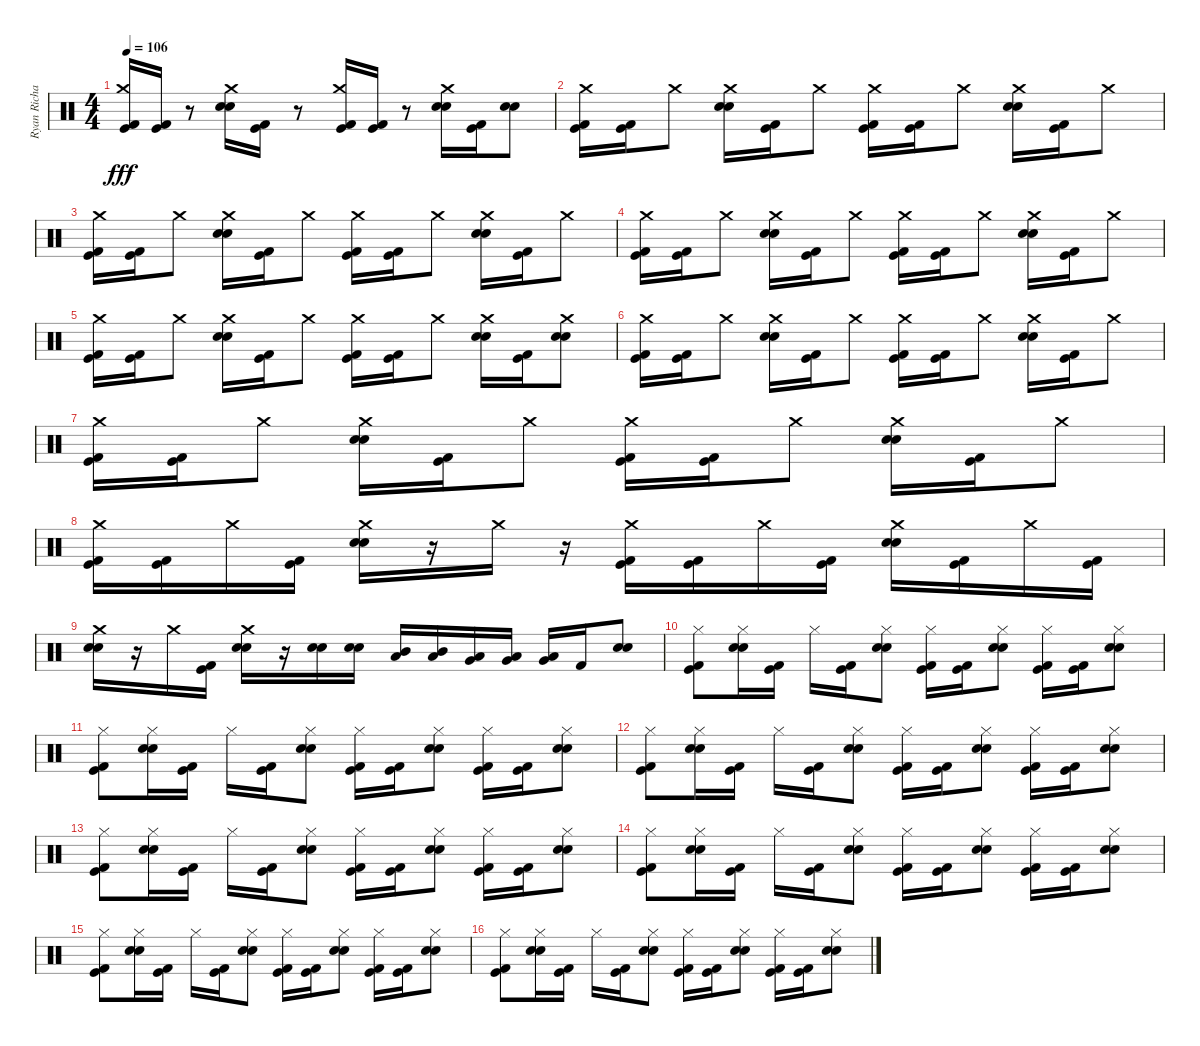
\track ("Ryan Richards" "Ryan Richa") {instrument percussion}
\staff {score}
\articulation defaults
\ts (4 4)
\tempo 106
\clef neutral
\ks c
("Kick (hit)" "Crash medium (hit)" "Kick (hit) 2").16{dy fff} ("Kick (hit)" "Kick (hit) 2").16 r.8 ("Crash medium (hit)" "Snare (hit) 2" "Electric Snare (hit)").16 ("Kick (hit)" "Kick (hit) 2").16 r.8 ("Kick (hit)" "Crash medium (hit)" "Kick (hit) 2").16 ("Kick (hit)" "Kick (hit) 2").16 r.8 ("Crash medium (hit)" "Snare (hit) 2" "Electric Snare (hit)").16 ("Kick (hit)" "Kick (hit) 2").16 ("Snare (hit) 2" "Electric Snare (hit)").8 |
("Kick (hit)" "Crash medium (hit)" "Kick (hit) 2").16 ("Kick (hit)" "Kick (hit) 2").16 "Crash medium (hit)".8 ("Crash medium (hit)" "Snare (hit) 2" "Electric Snare (hit)").16 ("Kick (hit)" "Kick (hit) 2").16 "Crash medium (hit)".8 ("Kick (hit)" "Crash medium (hit)" "Kick (hit) 2").16 ("Kick (hit)" "Kick (hit) 2").16 "Crash medium (hit)".8 ("Crash medium (hit)" "Snare (hit) 2" "Electric Snare (hit)").16 ("Kick (hit)" "Kick (hit) 2").16 "Crash medium (hit)".8 |
("Kick (hit)" "Crash medium (hit)" "Kick (hit) 2").16 ("Kick (hit)" "Kick (hit) 2").16 "Crash medium (hit)".8 ("Crash medium (hit)" "Snare (hit) 2" "Electric Snare (hit)").16 ("Kick (hit)" "Kick (hit) 2").16 "Crash medium (hit)".8 ("Kick (hit)" "Crash medium (hit)" "Kick (hit) 2").16 ("Kick (hit)" "Kick (hit) 2").16 "Crash medium (hit)".8 ("Crash medium (hit)" "Snare (hit) 2" "Electric Snare (hit)").16 ("Kick (hit)" "Kick (hit) 2").16 "Crash medium (hit)".8 |
("Kick (hit)" "Crash medium (hit)" "Kick (hit) 2").16 ("Kick (hit)" "Kick (hit) 2").16 "Crash medium (hit)".8 ("Crash medium (hit)" "Snare (hit) 2" "Electric Snare (hit)").16 ("Kick (hit)" "Kick (hit) 2").16 "Crash medium (hit)".8 ("Kick (hit)" "Crash medium (hit)" "Kick (hit) 2").16 ("Kick (hit)" "Kick (hit) 2").16 "Crash medium (hit)".8 ("Crash medium (hit)" "Snare (hit) 2" "Electric Snare (hit)").16 ("Kick (hit)" "Kick (hit) 2").16 "Crash medium (hit)".8 |
("Kick (hit)" "Crash medium (hit)" "Kick (hit) 2").16 ("Kick (hit)" "Kick (hit) 2").16 "Crash medium (hit)".8 ("Crash medium (hit)" "Snare (hit) 2" "Electric Snare (hit)").16 ("Kick (hit)" "Kick (hit) 2").16 "Crash medium (hit)".8 ("Kick (hit)" "Crash medium (hit)" "Kick (hit) 2").16 ("Kick (hit)" "Kick (hit) 2").16 "Crash medium (hit)".8 ("Crash medium (hit)" "Snare (hit) 2" "Electric Snare (hit)").16 ("Kick (hit)" "Kick (hit) 2").16 ("Crash medium (hit)" "Snare (hit) 2" "Electric Snare (hit)").8 |
("Kick (hit)" "Crash medium (hit)" "Kick (hit) 2").16 ("Kick (hit)" "Kick (hit) 2").16 "Crash medium (hit)".8 ("Crash medium (hit)" "Snare (hit) 2" "Electric Snare (hit)").16 ("Kick (hit)" "Kick (hit) 2").16 "Crash medium (hit)".8 ("Kick (hit)" "Crash medium (hit)" "Kick (hit) 2").16 ("Kick (hit)" "Kick (hit) 2").16 "Crash medium (hit)".8 ("Crash medium (hit)" "Snare (hit) 2" "Electric Snare (hit)").16 ("Kick (hit)" "Kick (hit) 2").16 "Crash medium (hit)".8 |
("Kick (hit)" "Crash medium (hit)" "Kick (hit) 2").16 ("Kick (hit)" "Kick (hit) 2").16 "Crash medium (hit)".8 ("Crash medium (hit)" "Snare (hit) 2" "Electric Snare (hit)").16 ("Kick (hit)" "Kick (hit) 2").16 "Crash medium (hit)".8 ("Kick (hit)" "Crash medium (hit)" "Kick (hit) 2").16 ("Kick (hit)" "Kick (hit) 2").16 "Crash medium (hit)".8 ("Crash medium (hit)" "Snare (hit) 2" "Electric Snare (hit)").16 ("Kick (hit)" "Kick (hit) 2").16 "Crash medium (hit)".8 |
("Kick (hit)" "Crash medium (hit)" "Kick (hit) 2").16 ("Kick (hit)" "Kick (hit) 2").16 "Crash medium (hit)".16 ("Kick (hit)" "Kick (hit) 2").16 ("Crash medium (hit)" "Snare (hit) 2" "Electric Snare (hit)").16 r.16 "Crash medium (hit)".16 r.16 ("Kick (hit)" "Crash medium (hit)" "Kick (hit) 2").16 ("Kick (hit)" "Kick (hit) 2").16 "Crash medium (hit)".16 ("Kick (hit)" "Kick (hit) 2").16 ("Crash medium (hit)" "Snare (hit) 2" "Electric Snare (hit)").16 ("Kick (hit)" "Kick (hit) 2").16 "Crash medium (hit)".16 ("Kick (hit)" "Kick (hit) 2").16 |
("Crash medium (hit)" "Snare (hit) 2" "Electric Snare (hit)").16 r.16 "Crash medium (hit)".16 ("Kick (hit)" "Kick (hit) 2").16 ("Crash medium (hit)" "Snare (hit) 2" "Electric Snare (hit)").16 r.16 ("Snare (hit) 2" "Electric Snare (hit)").16 ("Snare (hit) 2" "Electric Snare (hit)").16 ("Mid Tom (hit)" "Low Tom (hit)").16 ("Mid Tom (hit)" "Low Tom (hit)").16 ("Low Tom (hit)" "Very Low Tom (hit)").16 ("Low Tom (hit)" "Very Low Tom (hit)").16 ("Very Low Tom (hit)" "Low Floor Tom (hit)").16 "Kick (hit) 2".16 ("Snare (hit) 2" "Electric Snare (hit)").8 |
("Kick (hit)" "Hi-Hat (closed)" "Kick (hit) 2").8 ("Hi-Hat (closed)" "Snare (hit) 2" "Electric Snare (hit)").16 ("Kick (hit)" "Kick (hit) 2").16 "Hi-Hat (closed)".16 ("Kick (hit)" "Kick (hit) 2").16 ("Hi-Hat (closed)" "Snare (hit) 2" "Electric Snare (hit)").8 ("Kick (hit)" "Hi-Hat (closed)" "Kick (hit) 2").16 ("Kick (hit)" "Kick (hit) 2").16 ("Hi-Hat (closed)" "Snare (hit) 2" "Electric Snare (hit)").8 ("Kick (hit)" "Hi-Hat (closed)" "Kick (hit) 2").16 ("Kick (hit)" "Kick (hit) 2").16 ("Hi-Hat (closed)" "Snare (hit) 2" "Electric Snare (hit)").8 |
("Kick (hit)" "Hi-Hat (closed)" "Kick (hit) 2").8 ("Hi-Hat (closed)" "Snare (hit) 2" "Electric Snare (hit)").16 ("Kick (hit)" "Kick (hit) 2").16 "Hi-Hat (closed)".16 ("Kick (hit)" "Kick (hit) 2").16 ("Hi-Hat (closed)" "Snare (hit) 2" "Electric Snare (hit)").8 ("Kick (hit)" "Hi-Hat (closed)" "Kick (hit) 2").16 ("Kick (hit)" "Kick (hit) 2").16 ("Hi-Hat (closed)" "Snare (hit) 2" "Electric Snare (hit)").8 ("Kick (hit)" "Hi-Hat (closed)" "Kick (hit) 2").16 ("Kick (hit)" "Kick (hit) 2").16 ("Hi-Hat (closed)" "Snare (hit) 2" "Electric Snare (hit)").8 |
("Kick (hit)" "Hi-Hat (closed)" "Kick (hit) 2").8 ("Hi-Hat (closed)" "Snare (hit) 2" "Electric Snare (hit)").16 ("Kick (hit)" "Kick (hit) 2").16 "Hi-Hat (closed)".16 ("Kick (hit)" "Kick (hit) 2").16 ("Hi-Hat (closed)" "Snare (hit) 2" "Electric Snare (hit)").8 ("Kick (hit)" "Hi-Hat (closed)" "Kick (hit) 2").16 ("Kick (hit)" "Kick (hit) 2").16 ("Hi-Hat (closed)" "Snare (hit) 2" "Electric Snare (hit)").8 ("Kick (hit)" "Hi-Hat (closed)" "Kick (hit) 2").16 ("Kick (hit)" "Kick (hit) 2").16 ("Hi-Hat (closed)" "Snare (hit) 2" "Electric Snare (hit)").8 |
("Kick (hit)" "Hi-Hat (closed)" "Kick (hit) 2").8 ("Hi-Hat (closed)" "Snare (hit) 2" "Electric Snare (hit)").16 ("Kick (hit)" "Kick (hit) 2").16 "Hi-Hat (closed)".16 ("Kick (hit)" "Kick (hit) 2").16 ("Hi-Hat (closed)" "Snare (hit) 2" "Electric Snare (hit)").8 ("Kick (hit)" "Hi-Hat (closed)" "Kick (hit) 2").16 ("Kick (hit)" "Kick (hit) 2").16 ("Hi-Hat (closed)" "Snare (hit) 2" "Electric Snare (hit)").8 ("Kick (hit)" "Hi-Hat (closed)" "Kick (hit) 2").16 ("Kick (hit)" "Kick (hit) 2").16 ("Hi-Hat (closed)" "Snare (hit) 2" "Electric Snare (hit)").8 |
("Kick (hit)" "Hi-Hat (closed)" "Kick (hit) 2").8 ("Hi-Hat (closed)" "Snare (hit) 2" "Electric Snare (hit)").16 ("Kick (hit)" "Kick (hit) 2").16 "Hi-Hat (closed)".16 ("Kick (hit)" "Kick (hit) 2").16 ("Hi-Hat (closed)" "Snare (hit) 2" "Electric Snare (hit)").8 ("Kick (hit)" "Hi-Hat (closed)" "Kick (hit) 2").16 ("Kick (hit)" "Kick (hit) 2").16 ("Hi-Hat (closed)" "Snare (hit) 2" "Electric Snare (hit)").8 ("Kick (hit)" "Hi-Hat (closed)" "Kick (hit) 2").16 ("Kick (hit)" "Kick (hit) 2").16 ("Hi-Hat (closed)" "Snare (hit) 2" "Electric Snare (hit)").8 |
("Kick (hit)" "Hi-Hat (closed)" "Kick (hit) 2").8 ("Hi-Hat (closed)" "Snare (hit) 2" "Electric Snare (hit)").16 ("Kick (hit)" "Kick (hit) 2").16 "Hi-Hat (closed)".16 ("Kick (hit)" "Kick (hit) 2").16 ("Hi-Hat (closed)" "Snare (hit) 2" "Electric Snare (hit)").8 ("Kick (hit)" "Hi-Hat (closed)" "Kick (hit) 2").16 ("Kick (hit)" "Kick (hit) 2").16 ("Hi-Hat (closed)" "Snare (hit) 2" "Electric Snare (hit)").8 ("Kick (hit)" "Hi-Hat (closed)" "Kick (hit) 2").16 ("Kick (hit)" "Kick (hit) 2").16 ("Hi-Hat (closed)" "Snare (hit) 2" "Electric Snare (hit)").8 |
("Kick (hit)" "Hi-Hat (closed)" "Kick (hit) 2").8 ("Hi-Hat (closed)" "Snare (hit) 2" "Electric Snare (hit)").16 ("Kick (hit)" "Kick (hit) 2").16 "Hi-Hat (closed)".16 ("Kick (hit)" "Kick (hit) 2").16 ("Hi-Hat (closed)" "Snare (hit) 2" "Electric Snare (hit)").8 ("Kick (hit)" "Hi-Hat (closed)" "Kick (hit) 2").16 ("Kick (hit)" "Kick (hit) 2").16 ("Hi-Hat (closed)" "Snare (hit) 2" "Electric Snare (hit)").8 ("Kick (hit)" "Hi-Hat (closed)" "Kick (hit) 2").16 ("Kick (hit)" "Kick (hit) 2").16 ("Hi-Hat (closed)" "Snare (hit) 2" "Electric Snare (hit)").8
